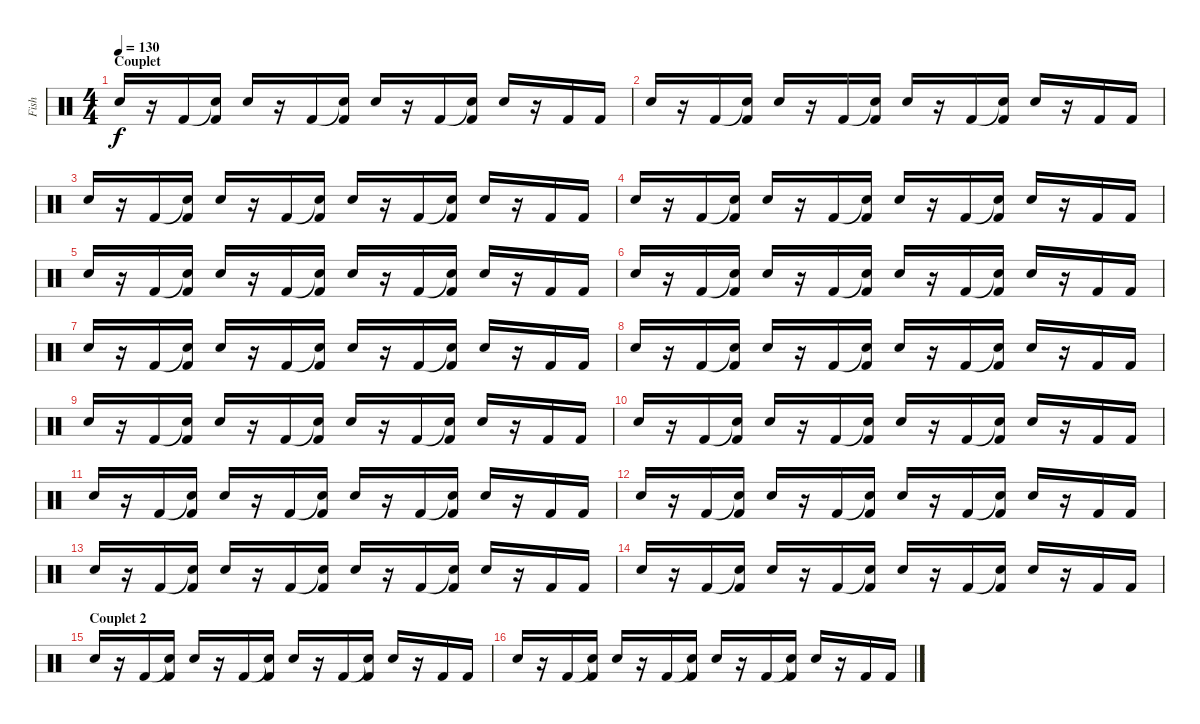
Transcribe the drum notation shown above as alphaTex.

\track ("Fish" "Fish") {instrument percussion}
\staff {score}
\articulation defaults
\ts (4 4)
\section ("" "Couplet")
\tempo 130
\clef neutral
\ks c "Snare (hit) 2".16{dy f}
r.16 "Kick (hit) 2".16 ("Snare (hit) 2"{t} "Kick (hit) 2").16 "Snare (hit) 2".16 r.16 "Kick (hit) 2".16 ("Snare (hit) 2"{t} "Kick (hit) 2").16 "Snare (hit) 2".16 r.16 "Kick (hit) 2".16 ("Snare (hit) 2"{t} "Kick (hit) 2").16 "Snare (hit) 2".16 r.16 "Kick (hit) 2".16 "Kick (hit) 2".16 |
"Snare (hit) 2".16 r.16 "Kick (hit) 2".16 ("Snare (hit) 2"{t} "Kick (hit) 2").16 "Snare (hit) 2".16 r.16 "Kick (hit) 2".16 ("Snare (hit) 2"{t} "Kick (hit) 2").16 "Snare (hit) 2".16 r.16 "Kick (hit) 2".16 ("Snare (hit) 2"{t} "Kick (hit) 2").16 "Snare (hit) 2".16 r.16 "Kick (hit) 2".16 "Kick (hit) 2".16 |
"Snare (hit) 2".16 r.16 "Kick (hit) 2".16 ("Snare (hit) 2"{t} "Kick (hit) 2").16 "Snare (hit) 2".16 r.16 "Kick (hit) 2".16 ("Snare (hit) 2"{t} "Kick (hit) 2").16 "Snare (hit) 2".16 r.16 "Kick (hit) 2".16 ("Snare (hit) 2"{t} "Kick (hit) 2").16 "Snare (hit) 2".16 r.16 "Kick (hit) 2".16 "Kick (hit) 2".16 |
"Snare (hit) 2".16 r.16 "Kick (hit) 2".16 ("Snare (hit) 2"{t} "Kick (hit) 2").16 "Snare (hit) 2".16 r.16 "Kick (hit) 2".16 ("Snare (hit) 2"{t} "Kick (hit) 2").16 "Snare (hit) 2".16 r.16 "Kick (hit) 2".16 ("Snare (hit) 2"{t} "Kick (hit) 2").16 "Snare (hit) 2".16 r.16 "Kick (hit) 2".16 "Kick (hit) 2".16 |
"Snare (hit) 2".16 r.16 "Kick (hit) 2".16 ("Snare (hit) 2"{t} "Kick (hit) 2").16 "Snare (hit) 2".16 r.16 "Kick (hit) 2".16 ("Snare (hit) 2"{t} "Kick (hit) 2").16 "Snare (hit) 2".16 r.16 "Kick (hit) 2".16 ("Snare (hit) 2"{t} "Kick (hit) 2").16 "Snare (hit) 2".16 r.16 "Kick (hit) 2".16 "Kick (hit) 2".16 |
"Snare (hit) 2".16 r.16 "Kick (hit) 2".16 ("Snare (hit) 2"{t} "Kick (hit) 2").16 "Snare (hit) 2".16 r.16 "Kick (hit) 2".16 ("Snare (hit) 2"{t} "Kick (hit) 2").16 "Snare (hit) 2".16 r.16 "Kick (hit) 2".16 ("Snare (hit) 2"{t} "Kick (hit) 2").16 "Snare (hit) 2".16 r.16 "Kick (hit) 2".16 "Kick (hit) 2".16 |
"Snare (hit) 2".16 r.16 "Kick (hit) 2".16 ("Snare (hit) 2"{t} "Kick (hit) 2").16 "Snare (hit) 2".16 r.16 "Kick (hit) 2".16 ("Snare (hit) 2"{t} "Kick (hit) 2").16 "Snare (hit) 2".16 r.16 "Kick (hit) 2".16 ("Snare (hit) 2"{t} "Kick (hit) 2").16 "Snare (hit) 2".16 r.16 "Kick (hit) 2".16 "Kick (hit) 2".16 |
"Snare (hit) 2".16 r.16 "Kick (hit) 2".16 ("Snare (hit) 2"{t} "Kick (hit) 2").16 "Snare (hit) 2".16 r.16 "Kick (hit) 2".16 ("Snare (hit) 2"{t} "Kick (hit) 2").16 "Snare (hit) 2".16 r.16 "Kick (hit) 2".16 ("Snare (hit) 2"{t} "Kick (hit) 2").16 "Snare (hit) 2".16 r.16 "Kick (hit) 2".16 "Kick (hit) 2".16 |
"Snare (hit) 2".16 r.16 "Kick (hit) 2".16 ("Snare (hit) 2"{t} "Kick (hit) 2").16 "Snare (hit) 2".16 r.16 "Kick (hit) 2".16 ("Snare (hit) 2"{t} "Kick (hit) 2").16 "Snare (hit) 2".16 r.16 "Kick (hit) 2".16 ("Snare (hit) 2"{t} "Kick (hit) 2").16 "Snare (hit) 2".16 r.16 "Kick (hit) 2".16 "Kick (hit) 2".16 |
"Snare (hit) 2".16 r.16 "Kick (hit) 2".16 ("Snare (hit) 2"{t} "Kick (hit) 2").16 "Snare (hit) 2".16 r.16 "Kick (hit) 2".16 ("Snare (hit) 2"{t} "Kick (hit) 2").16 "Snare (hit) 2".16 r.16 "Kick (hit) 2".16 ("Snare (hit) 2"{t} "Kick (hit) 2").16 "Snare (hit) 2".16 r.16 "Kick (hit) 2".16 "Kick (hit) 2".16 |
"Snare (hit) 2".16 r.16 "Kick (hit) 2".16 ("Snare (hit) 2"{t} "Kick (hit) 2").16 "Snare (hit) 2".16 r.16 "Kick (hit) 2".16 ("Snare (hit) 2"{t} "Kick (hit) 2").16 "Snare (hit) 2".16 r.16 "Kick (hit) 2".16 ("Snare (hit) 2"{t} "Kick (hit) 2").16 "Snare (hit) 2".16 r.16 "Kick (hit) 2".16 "Kick (hit) 2".16 |
"Snare (hit) 2".16 r.16 "Kick (hit) 2".16 ("Snare (hit) 2"{t} "Kick (hit) 2").16 "Snare (hit) 2".16 r.16 "Kick (hit) 2".16 ("Snare (hit) 2"{t} "Kick (hit) 2").16 "Snare (hit) 2".16 r.16 "Kick (hit) 2".16 ("Snare (hit) 2"{t} "Kick (hit) 2").16 "Snare (hit) 2".16 r.16 "Kick (hit) 2".16 "Kick (hit) 2".16 |
"Snare (hit) 2".16 r.16 "Kick (hit) 2".16 ("Snare (hit) 2"{t} "Kick (hit) 2").16 "Snare (hit) 2".16 r.16 "Kick (hit) 2".16 ("Snare (hit) 2"{t} "Kick (hit) 2").16 "Snare (hit) 2".16 r.16 "Kick (hit) 2".16 ("Snare (hit) 2"{t} "Kick (hit) 2").16 "Snare (hit) 2".16 r.16 "Kick (hit) 2".16 "Kick (hit) 2".16 |
"Snare (hit) 2".16 r.16 "Kick (hit) 2".16 ("Snare (hit) 2"{t} "Kick (hit) 2").16 "Snare (hit) 2".16 r.16 "Kick (hit) 2".16 ("Snare (hit) 2"{t} "Kick (hit) 2").16 "Snare (hit) 2".16 r.16 "Kick (hit) 2".16 ("Snare (hit) 2"{t} "Kick (hit) 2").16 "Snare (hit) 2".16 r.16 "Kick (hit) 2".16 "Kick (hit) 2".16 |
\section ("" "Couplet 2")
"Snare (hit) 2".16 r.16 "Kick (hit) 2".16 ("Snare (hit) 2"{t} "Kick (hit) 2").16 "Snare (hit) 2".16 r.16 "Kick (hit) 2".16 ("Snare (hit) 2"{t} "Kick (hit) 2").16 "Snare (hit) 2".16 r.16 "Kick (hit) 2".16 ("Snare (hit) 2"{t} "Kick (hit) 2").16 "Snare (hit) 2".16 r.16 "Kick (hit) 2".16 "Kick (hit) 2".16 |
"Snare (hit) 2".16 r.16 "Kick (hit) 2".16 ("Snare (hit) 2"{t} "Kick (hit) 2").16 "Snare (hit) 2".16 r.16 "Kick (hit) 2".16 ("Snare (hit) 2"{t} "Kick (hit) 2").16 "Snare (hit) 2".16 r.16 "Kick (hit) 2".16 ("Snare (hit) 2"{t} "Kick (hit) 2").16 "Snare (hit) 2".16 r.16 "Kick (hit) 2".16 "Kick (hit) 2".16
